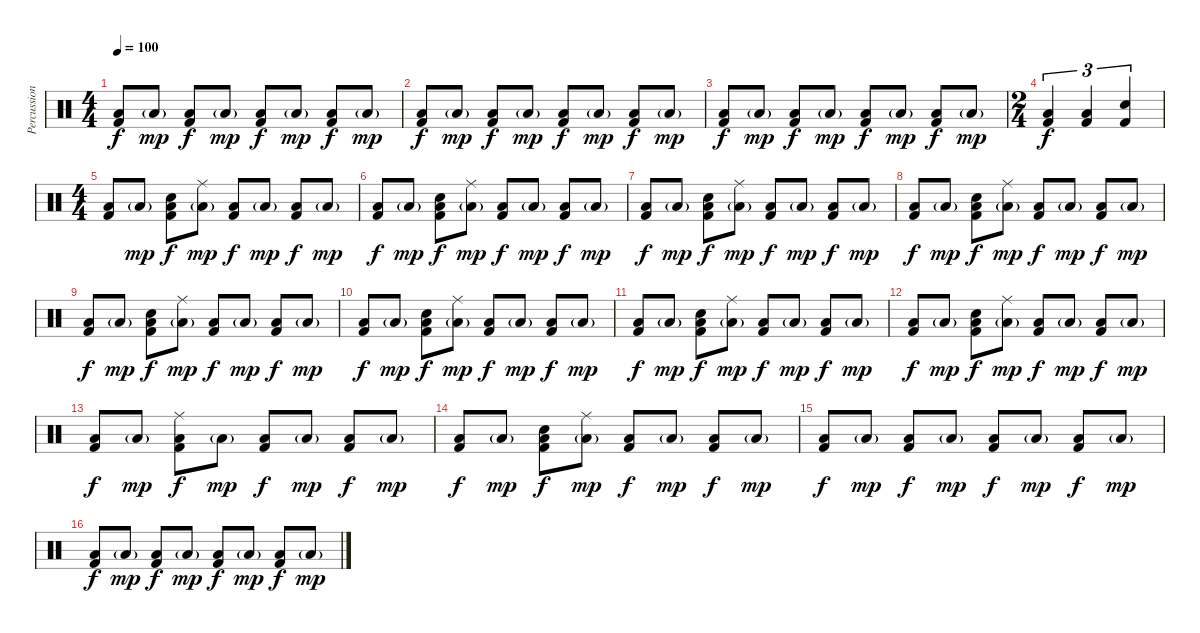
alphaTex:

\track ("Percussion" "Percussion") {instrument percussion}
\staff {score}
\articulation defaults
\ts (4 4)
\tempo 100
\clef neutral
\ks c
("Low Floor Tom (hit)" "Kick (hit) 2").8{dy f} "Low Floor Tom (hit)"{g}.8{dy mp} ("Low Floor Tom (hit)" "Kick (hit) 2").8{dy f} "Low Floor Tom (hit)"{g}.8{dy mp} ("Low Floor Tom (hit)" "Kick (hit) 2").8{dy f} "Low Floor Tom (hit)"{g}.8{dy mp} ("Low Floor Tom (hit)" "Kick (hit) 2").8{dy f} "Low Floor Tom (hit)"{g}.8{dy mp} |
("Low Floor Tom (hit)" "Kick (hit) 2").8{dy f} "Low Floor Tom (hit)"{g}.8{dy mp} ("Low Floor Tom (hit)" "Kick (hit) 2").8{dy f} "Low Floor Tom (hit)"{g}.8{dy mp} ("Low Floor Tom (hit)" "Kick (hit) 2").8{dy f} "Low Floor Tom (hit)"{g}.8{dy mp} ("Low Floor Tom (hit)" "Kick (hit) 2").8{dy f} "Low Floor Tom (hit)"{g}.8{dy mp} |
("Low Floor Tom (hit)" "Kick (hit) 2").8{dy f} "Low Floor Tom (hit)"{g}.8{dy mp} ("Low Floor Tom (hit)" "Kick (hit) 2").8{dy f} "Low Floor Tom (hit)"{g}.8{dy mp} ("Low Floor Tom (hit)" "Kick (hit) 2").8{dy f} "Low Floor Tom (hit)"{g}.8{dy mp} ("Low Floor Tom (hit)" "Kick (hit) 2").8{dy f} "Low Floor Tom (hit)"{g}.8{dy mp} |
\ts (2 4)
("Low Floor Tom (hit)" "Kick (hit) 2").4{tu (3 2) dy f} ("Low Floor Tom (hit)" "Kick (hit) 2").4{tu (3 2)} ("Snare (hit) 2" "Kick (hit) 2").4{tu (3 2)} |
\ts (4 4)
("Low Floor Tom (hit)" "Kick (hit) 2").8 "Low Floor Tom (hit)"{g}.8{dy mp} ("Snare (hit) 2" "Low Floor Tom (hit)" "Kick (hit) 2").8{dy f} ("Ride (middle)" "Low Floor Tom (hit)"{g}).8{dy mp} ("Low Floor Tom (hit)" "Kick (hit) 2").8{dy f} "Low Floor Tom (hit)"{g}.8{dy mp} ("Low Floor Tom (hit)" "Kick (hit) 2").8{dy f} "Low Floor Tom (hit)"{g}.8{dy mp} |
("Low Floor Tom (hit)" "Kick (hit) 2").8{dy f} "Low Floor Tom (hit)"{g}.8{dy mp} ("Snare (hit) 2" "Low Floor Tom (hit)" "Kick (hit) 2").8{dy f} ("Ride (middle)" "Low Floor Tom (hit)"{g}).8{dy mp} ("Low Floor Tom (hit)" "Kick (hit) 2").8{dy f} "Low Floor Tom (hit)"{g}.8{dy mp} ("Low Floor Tom (hit)" "Kick (hit) 2").8{dy f} "Low Floor Tom (hit)"{g}.8{dy mp} |
("Low Floor Tom (hit)" "Kick (hit) 2").8{dy f} "Low Floor Tom (hit)"{g}.8{dy mp} ("Snare (hit) 2" "Low Floor Tom (hit)" "Kick (hit) 2").8{dy f} ("Ride (middle)" "Low Floor Tom (hit)"{g}).8{dy mp} ("Low Floor Tom (hit)" "Kick (hit) 2").8{dy f} "Low Floor Tom (hit)"{g}.8{dy mp} ("Low Floor Tom (hit)" "Kick (hit) 2").8{dy f} "Low Floor Tom (hit)"{g}.8{dy mp} |
("Low Floor Tom (hit)" "Kick (hit) 2").8{dy f} "Low Floor Tom (hit)"{g}.8{dy mp} ("Snare (hit) 2" "Low Floor Tom (hit)" "Kick (hit) 2").8{dy f} ("Ride (middle)" "Low Floor Tom (hit)"{g}).8{dy mp} ("Low Floor Tom (hit)" "Kick (hit) 2").8{dy f} "Low Floor Tom (hit)"{g}.8{dy mp} ("Low Floor Tom (hit)" "Kick (hit) 2").8{dy f} "Low Floor Tom (hit)"{g}.8{dy mp} |
("Low Floor Tom (hit)" "Kick (hit) 2").8{dy f} "Low Floor Tom (hit)"{g}.8{dy mp} ("Snare (hit) 2" "Low Floor Tom (hit)" "Kick (hit) 2").8{dy f} ("Ride (middle)" "Low Floor Tom (hit)"{g}).8{dy mp} ("Low Floor Tom (hit)" "Kick (hit) 2").8{dy f} "Low Floor Tom (hit)"{g}.8{dy mp} ("Low Floor Tom (hit)" "Kick (hit) 2").8{dy f} "Low Floor Tom (hit)"{g}.8{dy mp} |
("Low Floor Tom (hit)" "Kick (hit) 2").8{dy f} "Low Floor Tom (hit)"{g}.8{dy mp} ("Snare (hit) 2" "Low Floor Tom (hit)" "Kick (hit) 2").8{dy f} ("Ride (middle)" "Low Floor Tom (hit)"{g}).8{dy mp} ("Low Floor Tom (hit)" "Kick (hit) 2").8{dy f} "Low Floor Tom (hit)"{g}.8{dy mp} ("Low Floor Tom (hit)" "Kick (hit) 2").8{dy f} "Low Floor Tom (hit)"{g}.8{dy mp} |
("Low Floor Tom (hit)" "Kick (hit) 2").8{dy f} "Low Floor Tom (hit)"{g}.8{dy mp} ("Snare (hit) 2" "Low Floor Tom (hit)" "Kick (hit) 2").8{dy f} ("Ride (middle)" "Low Floor Tom (hit)"{g}).8{dy mp} ("Low Floor Tom (hit)" "Kick (hit) 2").8{dy f} "Low Floor Tom (hit)"{g}.8{dy mp} ("Low Floor Tom (hit)" "Kick (hit) 2").8{dy f} "Low Floor Tom (hit)"{g}.8{dy mp} |
("Low Floor Tom (hit)" "Kick (hit) 2").8{dy f} "Low Floor Tom (hit)"{g}.8{dy mp} ("Snare (hit) 2" "Low Floor Tom (hit)" "Kick (hit) 2").8{dy f} ("Ride (middle)" "Low Floor Tom (hit)"{g}).8{dy mp} ("Low Floor Tom (hit)" "Kick (hit) 2").8{dy f} "Low Floor Tom (hit)"{g}.8{dy mp} ("Low Floor Tom (hit)" "Kick (hit) 2").8{dy f} "Low Floor Tom (hit)"{g}.8{dy mp} |
("Low Floor Tom (hit)" "Kick (hit) 2").8{dy f} "Low Floor Tom (hit)"{g}.8{dy mp} ("Ride (middle)" "Low Floor Tom (hit)" "Kick (hit) 2").8{dy f} "Low Floor Tom (hit)"{g}.8{dy mp} ("Low Floor Tom (hit)" "Kick (hit) 2").8{dy f} "Low Floor Tom (hit)"{g}.8{dy mp} ("Low Floor Tom (hit)" "Kick (hit) 2").8{dy f} "Low Floor Tom (hit)"{g}.8{dy mp} |
("Low Floor Tom (hit)" "Kick (hit) 2").8{dy f} "Low Floor Tom (hit)"{g}.8{dy mp} ("Snare (hit) 2" "Low Floor Tom (hit)" "Kick (hit) 2").8{dy f} ("Ride (middle)" "Low Floor Tom (hit)"{g}).8{dy mp} ("Low Floor Tom (hit)" "Kick (hit) 2").8{dy f} "Low Floor Tom (hit)"{g}.8{dy mp} ("Low Floor Tom (hit)" "Kick (hit) 2").8{dy f} "Low Floor Tom (hit)"{g}.8{dy mp} |
("Low Floor Tom (hit)" "Kick (hit) 2").8{dy f} "Low Floor Tom (hit)"{g}.8{dy mp} ("Low Floor Tom (hit)" "Kick (hit) 2").8{dy f} "Low Floor Tom (hit)"{g}.8{dy mp} ("Low Floor Tom (hit)" "Kick (hit) 2").8{dy f} "Low Floor Tom (hit)"{g}.8{dy mp} ("Low Floor Tom (hit)" "Kick (hit) 2").8{dy f} "Low Floor Tom (hit)"{g}.8{dy mp} |
("Low Floor Tom (hit)" "Kick (hit) 2").8{dy f} "Low Floor Tom (hit)"{g}.8{dy mp} ("Low Floor Tom (hit)" "Kick (hit) 2").8{dy f} "Low Floor Tom (hit)"{g}.8{dy mp} ("Low Floor Tom (hit)" "Kick (hit) 2").8{dy f} "Low Floor Tom (hit)"{g}.8{dy mp} ("Low Floor Tom (hit)" "Kick (hit) 2").8{dy f} "Low Floor Tom (hit)"{g}.8{dy mp}
